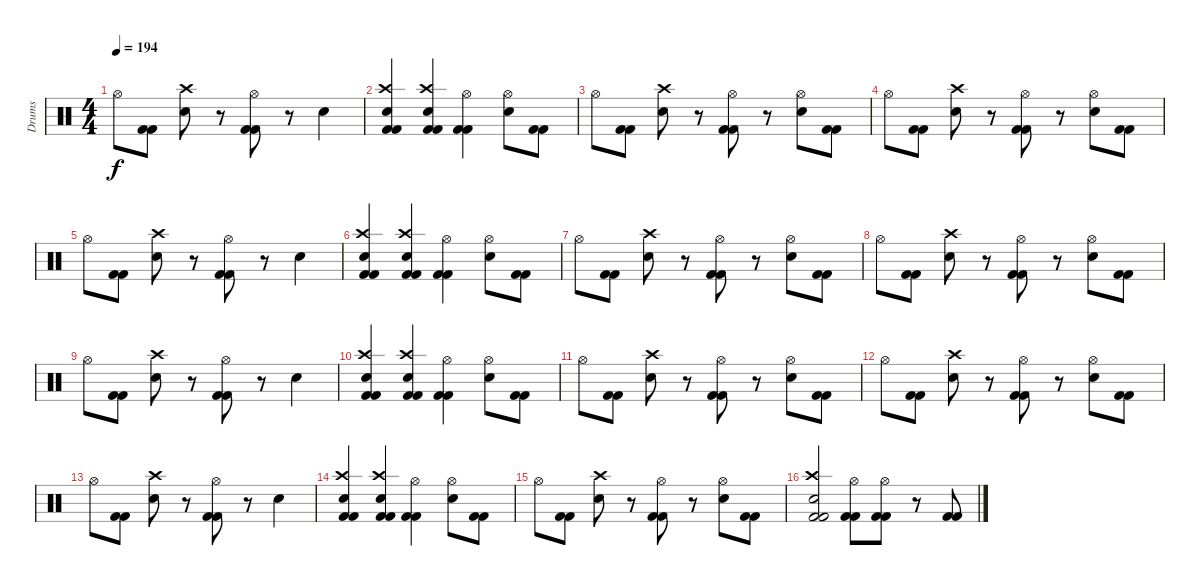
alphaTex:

\track ("Drums" "Drums") {instrument percussion}
\staff {score}
\articulation defaults
\ts (4 4)
\tempo 194
\clef neutral
\ks c "Hi-Hat (open)".8{dy f}
("Kick (hit) 2" "Kick (hit) 2").8 ("Crash high (hit)" "Electric Snare (hit)").8 r.8 ("Hi-Hat (open)" "Kick (hit) 2" "Kick (hit) 2").8 r.8 "Electric Snare (hit)".4 |
("Crash high (hit)" "Electric Snare (hit)" "Kick (hit) 2" "Kick (hit) 2").4 ("Crash high (hit)" "Electric Snare (hit)" "Kick (hit) 2" "Kick (hit) 2").4 ("Hi-Hat (open)" "Kick (hit) 2" "Kick (hit) 2").4 ("Hi-Hat (open)" "Electric Snare (hit)").8 ("Kick (hit) 2" "Kick (hit) 2").8 |
"Hi-Hat (open)".8 ("Kick (hit) 2" "Kick (hit) 2").8 ("Crash high (hit)" "Electric Snare (hit)").8 r.8 ("Hi-Hat (open)" "Kick (hit) 2" "Kick (hit) 2").8 r.8 ("Hi-Hat (open)" "Electric Snare (hit)").8 ("Kick (hit) 2" "Kick (hit) 2").8 |
"Hi-Hat (open)".8 ("Kick (hit) 2" "Kick (hit) 2").8 ("Crash high (hit)" "Electric Snare (hit)").8 r.8 ("Hi-Hat (open)" "Kick (hit) 2" "Kick (hit) 2").8 r.8 ("Hi-Hat (open)" "Electric Snare (hit)").8 ("Kick (hit) 2" "Kick (hit) 2").8 |
"Hi-Hat (open)".8 ("Kick (hit) 2" "Kick (hit) 2").8 ("Crash high (hit)" "Electric Snare (hit)").8 r.8 ("Hi-Hat (open)" "Kick (hit) 2" "Kick (hit) 2").8 r.8 "Electric Snare (hit)".4 |
("Crash high (hit)" "Electric Snare (hit)" "Kick (hit) 2" "Kick (hit) 2").4 ("Crash high (hit)" "Electric Snare (hit)" "Kick (hit) 2" "Kick (hit) 2").4 ("Hi-Hat (open)" "Kick (hit) 2" "Kick (hit) 2").4 ("Hi-Hat (open)" "Electric Snare (hit)").8 ("Kick (hit) 2" "Kick (hit) 2").8 |
"Hi-Hat (open)".8 ("Kick (hit) 2" "Kick (hit) 2").8 ("Crash high (hit)" "Electric Snare (hit)").8 r.8 ("Hi-Hat (open)" "Kick (hit) 2" "Kick (hit) 2").8 r.8 ("Hi-Hat (open)" "Electric Snare (hit)").8 ("Kick (hit) 2" "Kick (hit) 2").8 |
"Hi-Hat (open)".8 ("Kick (hit) 2" "Kick (hit) 2").8 ("Crash high (hit)" "Electric Snare (hit)").8 r.8 ("Hi-Hat (open)" "Kick (hit) 2" "Kick (hit) 2").8 r.8 ("Hi-Hat (open)" "Electric Snare (hit)").8 ("Kick (hit) 2" "Kick (hit) 2").8 |
"Hi-Hat (open)".8 ("Kick (hit) 2" "Kick (hit) 2").8 ("Crash high (hit)" "Electric Snare (hit)").8 r.8 ("Hi-Hat (open)" "Kick (hit) 2" "Kick (hit) 2").8 r.8 "Electric Snare (hit)".4 |
("Crash high (hit)" "Electric Snare (hit)" "Kick (hit) 2" "Kick (hit) 2").4 ("Crash high (hit)" "Electric Snare (hit)" "Kick (hit) 2" "Kick (hit) 2").4 ("Hi-Hat (open)" "Kick (hit) 2" "Kick (hit) 2").4 ("Hi-Hat (open)" "Electric Snare (hit)").8 ("Kick (hit) 2" "Kick (hit) 2").8 |
"Hi-Hat (open)".8 ("Kick (hit) 2" "Kick (hit) 2").8 ("Crash high (hit)" "Electric Snare (hit)").8 r.8 ("Hi-Hat (open)" "Kick (hit) 2" "Kick (hit) 2").8 r.8 ("Hi-Hat (open)" "Electric Snare (hit)").8 ("Kick (hit) 2" "Kick (hit) 2").8 |
"Hi-Hat (open)".8 ("Kick (hit) 2" "Kick (hit) 2").8 ("Crash high (hit)" "Electric Snare (hit)").8 r.8 ("Hi-Hat (open)" "Kick (hit) 2" "Kick (hit) 2").8 r.8 ("Hi-Hat (open)" "Electric Snare (hit)").8 ("Kick (hit) 2" "Kick (hit) 2").8 |
"Hi-Hat (open)".8 ("Kick (hit) 2" "Kick (hit) 2").8 ("Crash high (hit)" "Electric Snare (hit)").8 r.8 ("Hi-Hat (open)" "Kick (hit) 2" "Kick (hit) 2").8 r.8 "Electric Snare (hit)".4 |
("Crash high (hit)" "Electric Snare (hit)" "Kick (hit) 2" "Kick (hit) 2").4 ("Crash high (hit)" "Electric Snare (hit)" "Kick (hit) 2" "Kick (hit) 2").4 ("Hi-Hat (open)" "Kick (hit) 2" "Kick (hit) 2").4 ("Hi-Hat (open)" "Electric Snare (hit)").8 ("Kick (hit) 2" "Kick (hit) 2").8 |
"Hi-Hat (open)".8 ("Kick (hit) 2" "Kick (hit) 2").8 ("Crash high (hit)" "Electric Snare (hit)").8 r.8 ("Hi-Hat (open)" "Kick (hit) 2" "Kick (hit) 2").8 r.8 ("Hi-Hat (open)" "Electric Snare (hit)").8 ("Kick (hit) 2" "Kick (hit) 2").8 |
("Crash high (hit)" "Electric Snare (hit)" "Kick (hit) 2" "Kick (hit) 2").2 ("Hi-Hat (open)" "Kick (hit) 2" "Kick (hit) 2").8 ("Hi-Hat (open)" "Kick (hit) 2" "Kick (hit) 2").8 r.8 ("Kick (hit) 2" "Kick (hit) 2").8
